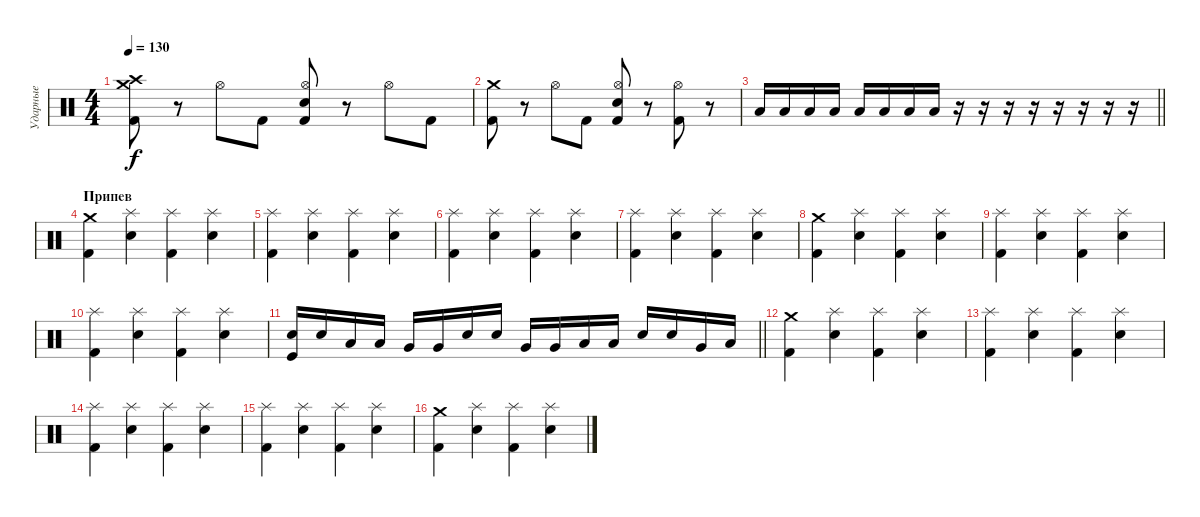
\track ("Ударные" "Ударные") {instrument percussion}
\staff {score}
\articulation defaults
\ts (4 4)
\tempo 130
\clef neutral
\ks c
("Crash medium (hit)" "Crash high (hit)" "Kick (hit) 2").8{dy f} r.8 "Hi-Hat (open)".8 "Kick (hit) 2".8 ("Hi-Hat (open)" "Snare (hit) 2" "Kick (hit) 2").8 r.8 "Hi-Hat (open)".8 "Kick (hit) 2".8 |
("Crash medium (hit)" "Kick (hit) 2").8 r.8 "Hi-Hat (open)".8 "Kick (hit) 2".8 ("Hi-Hat (open)" "Snare (hit) 2" "Kick (hit) 2").8 r.8 ("Hi-Hat (open)" "Kick (hit) 2").8 r.8 |
\barLineRight lightlight "Low Tom (hit)".16 "Low Tom (hit)".16 "Low Tom (hit)".16 "Low Tom (hit)".16 "Low Tom (hit)".16 "Low Tom (hit)".16 "Low Tom (hit)".16 "Low Tom (hit)".16
r.16 r.16 r.16 r.16 r.16 r.16 r.16 r.16 |
\section ("" "Припев")
("Kick (hit) 2" "Crash medium (hit)").4 ("Electric Snare (hit)" "Splash (hit)").4 ("Kick (hit) 2" "Splash (hit)").4 ("Electric Snare (hit)" "Splash (hit)").4 |
("Kick (hit) 2" "Splash (hit)").4 ("Electric Snare (hit)" "Splash (hit)").4 ("Kick (hit) 2" "Splash (hit)").4 ("Electric Snare (hit)" "Splash (hit)").4 |
("Kick (hit) 2" "Splash (hit)").4 ("Electric Snare (hit)" "Splash (hit)").4 ("Kick (hit) 2" "Splash (hit)").4 ("Electric Snare (hit)" "Splash (hit)").4 |
("Kick (hit) 2" "Splash (hit)").4 ("Electric Snare (hit)" "Splash (hit)").4 ("Kick (hit) 2" "Splash (hit)").4 ("Electric Snare (hit)" "Splash (hit)").4 |
("Kick (hit) 2" "Crash medium (hit)").4 ("Electric Snare (hit)" "Splash (hit)").4 ("Kick (hit) 2" "Splash (hit)").4 ("Electric Snare (hit)" "Splash (hit)").4 |
("Kick (hit) 2" "Splash (hit)").4 ("Electric Snare (hit)" "Splash (hit)").4 ("Kick (hit) 2" "Splash (hit)").4 ("Electric Snare (hit)" "Splash (hit)").4 |
("Kick (hit) 2" "Splash (hit)").4 ("Electric Snare (hit)" "Splash (hit)").4 ("Kick (hit) 2" "Splash (hit)").4 ("Electric Snare (hit)" "Splash (hit)").4 |
\barLineRight lightlight
("Electric Snare (hit)" "Kick (hit)").16 "Electric Snare (hit)".16 "Low Tom (hit)".16 "Low Tom (hit)".16 "Very Low Tom (hit)".16 "Very Low Tom (hit)".16 "Electric Snare (hit)".16 "Electric Snare (hit)".16 "Very Low Tom (hit)".16 "Very Low Tom (hit)".16 "Low Floor Tom (hit)".16 "Low Floor Tom (hit)".16 "Electric Snare (hit)".16 "Electric Snare (hit)".16 "Very Low Tom (hit)".16 "Low Floor Tom (hit)".16 |
("Kick (hit) 2" "Crash medium (hit)").4 ("Electric Snare (hit)" "Splash (hit)").4 ("Kick (hit) 2" "Splash (hit)").4 ("Electric Snare (hit)" "Splash (hit)").4 |
("Kick (hit) 2" "Splash (hit)").4 ("Electric Snare (hit)" "Splash (hit)").4 ("Kick (hit) 2" "Splash (hit)").4 ("Electric Snare (hit)" "Splash (hit)").4 |
("Kick (hit) 2" "Splash (hit)").4 ("Electric Snare (hit)" "Splash (hit)").4 ("Kick (hit) 2" "Splash (hit)").4 ("Electric Snare (hit)" "Splash (hit)").4 |
("Kick (hit) 2" "Splash (hit)").4 ("Electric Snare (hit)" "Splash (hit)").4 ("Kick (hit) 2" "Splash (hit)").4 ("Electric Snare (hit)" "Splash (hit)").4 |
("Kick (hit) 2" "Crash medium (hit)").4 ("Electric Snare (hit)" "Splash (hit)").4 ("Kick (hit) 2" "Splash (hit)").4 ("Electric Snare (hit)" "Splash (hit)").4
